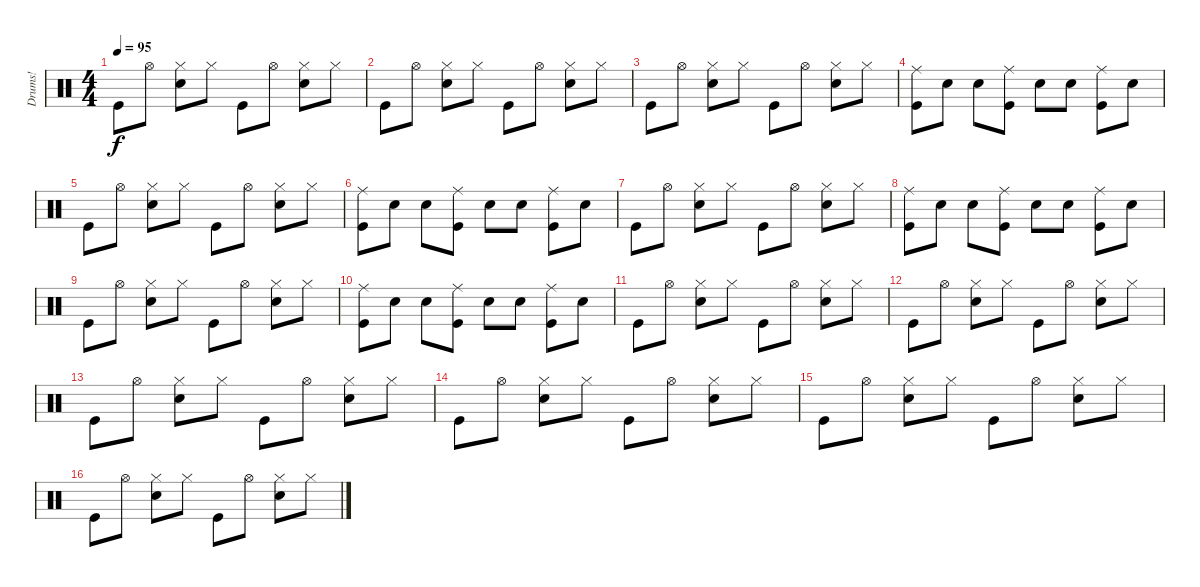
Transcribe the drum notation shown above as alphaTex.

\track ("Drums!" "Drums!") {instrument percussion}
\staff {score}
\articulation defaults
\ts (4 4)
\tempo 95
\clef neutral
\ks c "Kick (hit)".8{dy f} "Hi-Hat (open)".8
("Hi-Hat (closed)" "Electric Snare (hit)").8 "Hi-Hat (closed)".8 "Kick (hit)".8 "Hi-Hat (open)".8 ("Hi-Hat (closed)" "Electric Snare (hit)").8 "Hi-Hat (closed)".8 |
"Kick (hit)".8 "Hi-Hat (open)".8 ("Hi-Hat (closed)" "Electric Snare (hit)").8 "Hi-Hat (closed)".8 "Kick (hit)".8 "Hi-Hat (open)".8 ("Hi-Hat (closed)" "Electric Snare (hit)").8 "Hi-Hat (closed)".8 |
"Kick (hit)".8 "Hi-Hat (open)".8 ("Hi-Hat (closed)" "Electric Snare (hit)").8 "Hi-Hat (closed)".8 "Kick (hit)".8 "Hi-Hat (open)".8 ("Hi-Hat (closed)" "Electric Snare (hit)").8 "Hi-Hat (closed)".8 |
("Ride (middle)" "Kick (hit)").8 "Electric Snare (hit)".8 "Electric Snare (hit)".8 ("Ride (middle)" "Kick (hit)").8 "Electric Snare (hit)".8 "Electric Snare (hit)".8 ("Ride (middle)" "Kick (hit)").8 "Electric Snare (hit)".8 |
"Kick (hit)".8 "Hi-Hat (open)".8 ("Hi-Hat (closed)" "Electric Snare (hit)").8 "Hi-Hat (closed)".8 "Kick (hit)".8 "Hi-Hat (open)".8 ("Hi-Hat (closed)" "Electric Snare (hit)").8 "Hi-Hat (closed)".8 |
("Ride (middle)" "Kick (hit)").8 "Electric Snare (hit)".8 "Electric Snare (hit)".8 ("Ride (middle)" "Kick (hit)").8 "Electric Snare (hit)".8 "Electric Snare (hit)".8 ("Ride (middle)" "Kick (hit)").8 "Electric Snare (hit)".8 |
"Kick (hit)".8 "Hi-Hat (open)".8 ("Hi-Hat (closed)" "Electric Snare (hit)").8 "Hi-Hat (closed)".8 "Kick (hit)".8 "Hi-Hat (open)".8 ("Hi-Hat (closed)" "Electric Snare (hit)").8 "Hi-Hat (closed)".8 |
("Ride (middle)" "Kick (hit)").8 "Electric Snare (hit)".8 "Electric Snare (hit)".8 ("Ride (middle)" "Kick (hit)").8 "Electric Snare (hit)".8 "Electric Snare (hit)".8 ("Ride (middle)" "Kick (hit)").8 "Electric Snare (hit)".8 |
"Kick (hit)".8 "Hi-Hat (open)".8 ("Hi-Hat (closed)" "Electric Snare (hit)").8 "Hi-Hat (closed)".8 "Kick (hit)".8 "Hi-Hat (open)".8 ("Hi-Hat (closed)" "Electric Snare (hit)").8 "Hi-Hat (closed)".8 |
("Ride (middle)" "Kick (hit)").8 "Electric Snare (hit)".8 "Electric Snare (hit)".8 ("Ride (middle)" "Kick (hit)").8 "Electric Snare (hit)".8 "Electric Snare (hit)".8 ("Ride (middle)" "Kick (hit)").8 "Electric Snare (hit)".8 |
"Kick (hit)".8 "Hi-Hat (open)".8 ("Hi-Hat (closed)" "Electric Snare (hit)").8 "Hi-Hat (closed)".8 "Kick (hit)".8 "Hi-Hat (open)".8 ("Hi-Hat (closed)" "Electric Snare (hit)").8 "Hi-Hat (closed)".8 |
"Kick (hit)".8 "Hi-Hat (open)".8 ("Hi-Hat (closed)" "Electric Snare (hit)").8 "Hi-Hat (closed)".8 "Kick (hit)".8 "Hi-Hat (open)".8 ("Hi-Hat (closed)" "Electric Snare (hit)").8 "Hi-Hat (closed)".8 |
"Kick (hit)".8 "Hi-Hat (open)".8 ("Hi-Hat (closed)" "Electric Snare (hit)").8 "Hi-Hat (closed)".8 "Kick (hit)".8 "Hi-Hat (open)".8 ("Hi-Hat (closed)" "Electric Snare (hit)").8 "Hi-Hat (closed)".8 |
"Kick (hit)".8 "Hi-Hat (open)".8 ("Hi-Hat (closed)" "Electric Snare (hit)").8 "Hi-Hat (closed)".8 "Kick (hit)".8 "Hi-Hat (open)".8 ("Hi-Hat (closed)" "Electric Snare (hit)").8 "Hi-Hat (closed)".8 |
"Kick (hit)".8 "Hi-Hat (open)".8 ("Hi-Hat (closed)" "Electric Snare (hit)").8 "Hi-Hat (closed)".8 "Kick (hit)".8 "Hi-Hat (open)".8 ("Hi-Hat (closed)" "Electric Snare (hit)").8 "Hi-Hat (closed)".8 |
"Kick (hit)".8 "Hi-Hat (open)".8 ("Hi-Hat (closed)" "Electric Snare (hit)").8 "Hi-Hat (closed)".8 "Kick (hit)".8 "Hi-Hat (open)".8 ("Hi-Hat (closed)" "Electric Snare (hit)").8 "Hi-Hat (closed)".8
